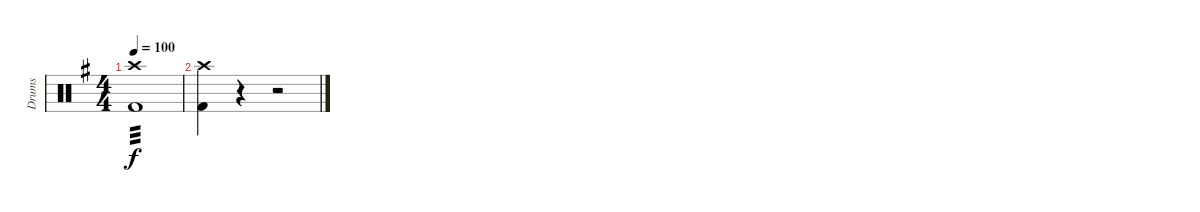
\track ("Drums" "Drums") {instrument percussion}
\staff {score}
\articulation defaults
\ts (4 4)
\tempo 100
\clef neutral
\ks g
("Crash high (hit)" "Kick (hit) 2").1{tp 3 dy f} |
("Crash high (hit)" "Kick (hit) 2").4 r.4 r.2
